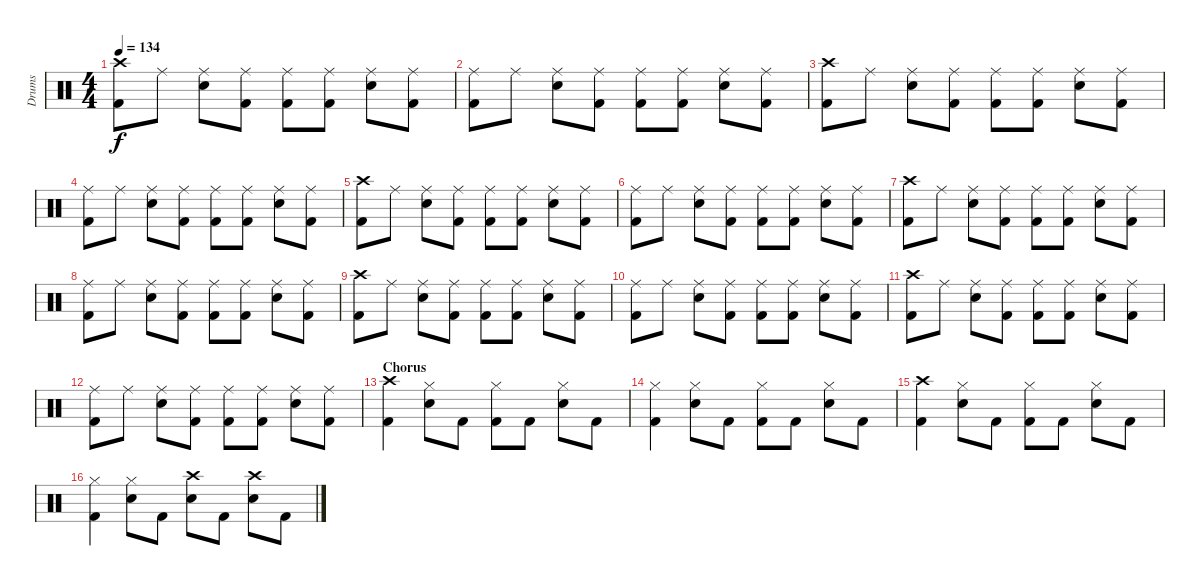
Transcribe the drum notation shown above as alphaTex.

\track ("Drums" "Drums") {instrument percussion}
\staff {score}
\articulation defaults
\ts (4 4)
\tempo 134
\clef neutral
\ks c
("Crash high (hit)" "Kick (hit) 2").8{dy f} "Ride (middle)".8 ("Ride (middle)" "Electric Snare (hit)").8 ("Ride (middle)" "Kick (hit) 2").8 ("Ride (middle)" "Kick (hit) 2").8 ("Ride (middle)" "Kick (hit) 2").8 ("Ride (middle)" "Electric Snare (hit)").8 ("Ride (middle)" "Kick (hit) 2").8 |
("Ride (middle)" "Kick (hit) 2").8 "Ride (middle)".8 ("Ride (middle)" "Electric Snare (hit)").8 ("Ride (middle)" "Kick (hit) 2").8 ("Ride (middle)" "Kick (hit) 2").8 ("Ride (middle)" "Kick (hit) 2").8 ("Ride (middle)" "Electric Snare (hit)").8 ("Ride (middle)" "Kick (hit) 2").8 |
("Crash high (hit)" "Kick (hit) 2").8 "Ride (middle)".8 ("Ride (middle)" "Electric Snare (hit)").8 ("Ride (middle)" "Kick (hit) 2").8 ("Ride (middle)" "Kick (hit) 2").8 ("Ride (middle)" "Kick (hit) 2").8 ("Ride (middle)" "Electric Snare (hit)").8 ("Ride (middle)" "Kick (hit) 2").8 |
("Ride (middle)" "Kick (hit) 2").8 "Ride (middle)".8 ("Ride (middle)" "Electric Snare (hit)").8 ("Ride (middle)" "Kick (hit) 2").8 ("Ride (middle)" "Kick (hit) 2").8 ("Ride (middle)" "Kick (hit) 2").8 ("Ride (middle)" "Electric Snare (hit)").8 ("Ride (middle)" "Kick (hit) 2").8 |
("Crash high (hit)" "Kick (hit) 2").8 "Ride (middle)".8 ("Ride (middle)" "Electric Snare (hit)").8 ("Ride (middle)" "Kick (hit) 2").8 ("Ride (middle)" "Kick (hit) 2").8 ("Ride (middle)" "Kick (hit) 2").8 ("Ride (middle)" "Electric Snare (hit)").8 ("Ride (middle)" "Kick (hit) 2").8 |
("Ride (middle)" "Kick (hit) 2").8 "Ride (middle)".8 ("Ride (middle)" "Electric Snare (hit)").8 ("Ride (middle)" "Kick (hit) 2").8 ("Ride (middle)" "Kick (hit) 2").8 ("Ride (middle)" "Kick (hit) 2").8 ("Ride (middle)" "Electric Snare (hit)").8 ("Ride (middle)" "Kick (hit) 2").8 |
("Crash high (hit)" "Kick (hit) 2").8 "Ride (middle)".8 ("Ride (middle)" "Electric Snare (hit)").8 ("Ride (middle)" "Kick (hit) 2").8 ("Ride (middle)" "Kick (hit) 2").8 ("Ride (middle)" "Kick (hit) 2").8 ("Ride (middle)" "Electric Snare (hit)").8 ("Ride (middle)" "Kick (hit) 2").8 |
("Ride (middle)" "Kick (hit) 2").8 "Ride (middle)".8 ("Ride (middle)" "Electric Snare (hit)").8 ("Ride (middle)" "Kick (hit) 2").8 ("Ride (middle)" "Kick (hit) 2").8 ("Ride (middle)" "Kick (hit) 2").8 ("Ride (middle)" "Electric Snare (hit)").8 ("Ride (middle)" "Kick (hit) 2").8 |
("Crash high (hit)" "Kick (hit) 2").8 "Ride (middle)".8 ("Ride (middle)" "Electric Snare (hit)").8 ("Ride (middle)" "Kick (hit) 2").8 ("Ride (middle)" "Kick (hit) 2").8 ("Ride (middle)" "Kick (hit) 2").8 ("Ride (middle)" "Electric Snare (hit)").8 ("Ride (middle)" "Kick (hit) 2").8 |
("Ride (middle)" "Kick (hit) 2").8 "Ride (middle)".8 ("Ride (middle)" "Electric Snare (hit)").8 ("Ride (middle)" "Kick (hit) 2").8 ("Ride (middle)" "Kick (hit) 2").8 ("Ride (middle)" "Kick (hit) 2").8 ("Ride (middle)" "Electric Snare (hit)").8 ("Ride (middle)" "Kick (hit) 2").8 |
("Crash high (hit)" "Kick (hit) 2").8 "Ride (middle)".8 ("Ride (middle)" "Electric Snare (hit)").8 ("Ride (middle)" "Kick (hit) 2").8 ("Ride (middle)" "Kick (hit) 2").8 ("Ride (middle)" "Kick (hit) 2").8 ("Ride (middle)" "Electric Snare (hit)").8 ("Ride (middle)" "Kick (hit) 2").8 |
("Ride (middle)" "Kick (hit) 2").8 "Ride (middle)".8 ("Ride (middle)" "Electric Snare (hit)").8 ("Ride (middle)" "Kick (hit) 2").8 ("Ride (middle)" "Kick (hit) 2").8 ("Ride (middle)" "Kick (hit) 2").8 ("Ride (middle)" "Electric Snare (hit)").8 ("Ride (middle)" "Kick (hit) 2").8 |
\section ("" "Chorus")
("Crash high (hit)" "Kick (hit) 2").4 ("Hi-Hat (closed)" "Electric Snare (hit)").8 "Kick (hit) 2".8 ("Hi-Hat (closed)" "Kick (hit) 2").8 "Kick (hit) 2".8 ("Hi-Hat (closed)" "Electric Snare (hit)").8 "Kick (hit) 2".8 |
("Hi-Hat (closed)" "Kick (hit) 2").4 ("Hi-Hat (closed)" "Electric Snare (hit)").8 "Kick (hit) 2".8 ("Hi-Hat (closed)" "Kick (hit) 2").8 "Kick (hit) 2".8 ("Hi-Hat (closed)" "Electric Snare (hit)").8 "Kick (hit) 2".8 |
("Crash high (hit)" "Kick (hit) 2").4 ("Hi-Hat (closed)" "Electric Snare (hit)").8 "Kick (hit) 2".8 ("Hi-Hat (closed)" "Kick (hit) 2").8 "Kick (hit) 2".8 ("Hi-Hat (closed)" "Electric Snare (hit)").8 "Kick (hit) 2".8 |
("Hi-Hat (closed)" "Kick (hit) 2").4 ("Hi-Hat (closed)" "Electric Snare (hit)").8 "Kick (hit) 2".8 ("Crash high (hit)" "Electric Snare (hit)").8 "Kick (hit) 2".8 ("Crash high (hit)" "Electric Snare (hit)").8 "Kick (hit) 2".8
